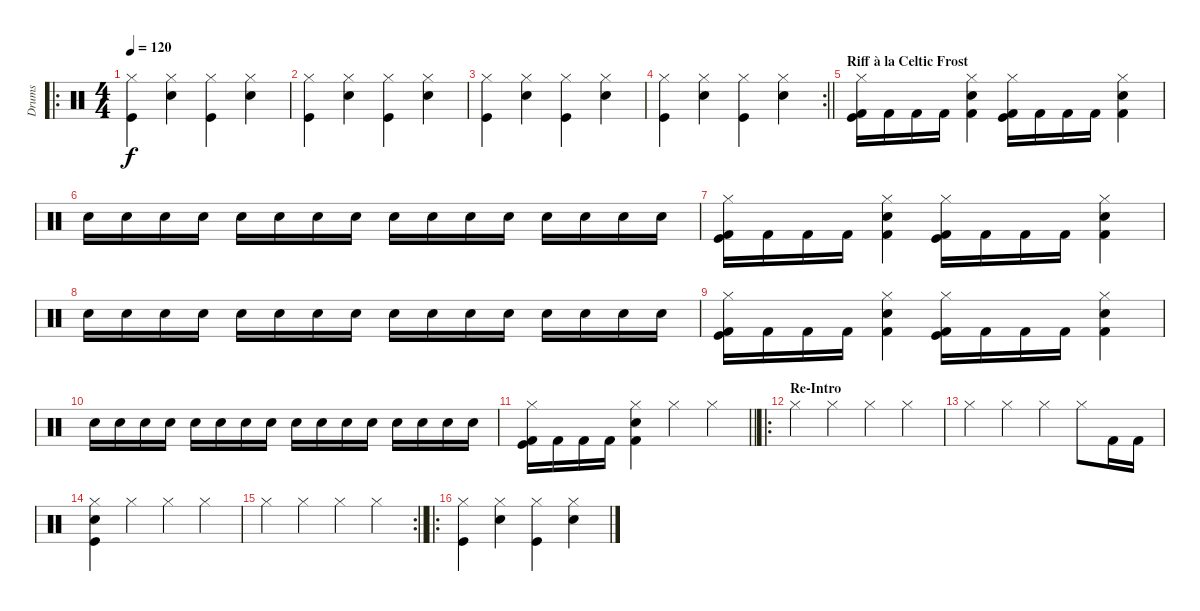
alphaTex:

\track ("Drums" "Drums") {instrument percussion}
\staff {score}
\articulation defaults
\ro
\ts (4 4)
\tempo 120
\clef neutral
\ks c
("Hi-Hat (closed)" "Kick (hit)").4{dy f} ("Hi-Hat (closed)" "Snare (hit) 2").4 ("Hi-Hat (closed)" "Kick (hit)").4 ("Hi-Hat (closed)" "Snare (hit) 2").4 |
("Hi-Hat (closed)" "Kick (hit)").4 ("Hi-Hat (closed)" "Snare (hit) 2").4 ("Hi-Hat (closed)" "Kick (hit)").4 ("Hi-Hat (closed)" "Snare (hit) 2").4 |
("Hi-Hat (closed)" "Kick (hit)").4 ("Hi-Hat (closed)" "Snare (hit) 2").4 ("Hi-Hat (closed)" "Kick (hit)").4 ("Hi-Hat (closed)" "Snare (hit) 2").4 |
\rc 2
\barLineRight lightlight
("Hi-Hat (closed)" "Kick (hit)").4 ("Hi-Hat (closed)" "Snare (hit) 2").4 ("Hi-Hat (closed)" "Kick (hit)").4 ("Hi-Hat (closed)" "Snare (hit) 2").4 |
\section ("" "Riff à la Celtic Frost")
("Kick (hit) 2" "Hi-Hat (closed)" "Kick (hit)").16 "Kick (hit) 2".16 "Kick (hit) 2".16 "Kick (hit) 2".16 ("Kick (hit) 2" "Hi-Hat (closed)" "Snare (hit) 2").4 ("Kick (hit) 2" "Hi-Hat (closed)" "Kick (hit)").16 "Kick (hit) 2".16 "Kick (hit) 2".16 "Kick (hit) 2".16 ("Kick (hit) 2" "Hi-Hat (closed)" "Snare (hit) 2").4 |
"Snare (hit) 2".16 "Snare (hit) 2".16 "Snare (hit) 2".16 "Snare (hit) 2".16 "Snare (hit) 2".16 "Snare (hit) 2".16 "Snare (hit) 2".16 "Snare (hit) 2".16 "Snare (hit) 2".16 "Snare (hit) 2".16 "Snare (hit) 2".16 "Snare (hit) 2".16 "Snare (hit) 2".16 "Snare (hit) 2".16 "Snare (hit) 2".16 "Snare (hit) 2".16 |
("Kick (hit) 2" "Hi-Hat (closed)" "Kick (hit)").16 "Kick (hit) 2".16 "Kick (hit) 2".16 "Kick (hit) 2".16 ("Kick (hit) 2" "Hi-Hat (closed)" "Snare (hit) 2").4 ("Kick (hit) 2" "Hi-Hat (closed)" "Kick (hit)").16 "Kick (hit) 2".16 "Kick (hit) 2".16 "Kick (hit) 2".16 ("Kick (hit) 2" "Hi-Hat (closed)" "Snare (hit) 2").4 |
"Snare (hit) 2".16 "Snare (hit) 2".16 "Snare (hit) 2".16 "Snare (hit) 2".16 "Snare (hit) 2".16 "Snare (hit) 2".16 "Snare (hit) 2".16 "Snare (hit) 2".16 "Snare (hit) 2".16 "Snare (hit) 2".16 "Snare (hit) 2".16 "Snare (hit) 2".16 "Snare (hit) 2".16 "Snare (hit) 2".16 "Snare (hit) 2".16 "Snare (hit) 2".16 |
("Kick (hit) 2" "Hi-Hat (closed)" "Kick (hit)").16 "Kick (hit) 2".16 "Kick (hit) 2".16 "Kick (hit) 2".16 ("Kick (hit) 2" "Hi-Hat (closed)" "Snare (hit) 2").4 ("Kick (hit) 2" "Hi-Hat (closed)" "Kick (hit)").16 "Kick (hit) 2".16 "Kick (hit) 2".16 "Kick (hit) 2".16 ("Kick (hit) 2" "Hi-Hat (closed)" "Snare (hit) 2").4 |
"Snare (hit) 2".16 "Snare (hit) 2".16 "Snare (hit) 2".16 "Snare (hit) 2".16 "Snare (hit) 2".16 "Snare (hit) 2".16 "Snare (hit) 2".16 "Snare (hit) 2".16 "Snare (hit) 2".16 "Snare (hit) 2".16 "Snare (hit) 2".16 "Snare (hit) 2".16 "Snare (hit) 2".16 "Snare (hit) 2".16 "Snare (hit) 2".16 "Snare (hit) 2".16 |
\barLineRight lightlight
("Kick (hit) 2" "Hi-Hat (closed)" "Kick (hit)").16 "Kick (hit) 2".16 "Kick (hit) 2".16 "Kick (hit) 2".16 ("Kick (hit) 2" "Hi-Hat (closed)" "Snare (hit) 2").4 "Hi-Hat (closed)".4 "Hi-Hat (closed)".4 |
\ro
\section ("" "Re-Intro")
"Hi-Hat (closed)".4 "Hi-Hat (closed)".4 "Hi-Hat (closed)".4 "Hi-Hat (closed)".4 |
"Hi-Hat (closed)".4 "Hi-Hat (closed)".4 "Hi-Hat (closed)".4 "Hi-Hat (closed)".8 "Kick (hit) 2".16 "Kick (hit) 2".16 |
("Hi-Hat (closed)" "Snare (hit) 2" "Kick (hit)").4 "Hi-Hat (closed)".4 "Hi-Hat (closed)".4 "Hi-Hat (closed)".4 |
\rc 2
\barLineRight lightlight "Hi-Hat (closed)".4 "Hi-Hat (closed)".4 "Hi-Hat (closed)".4 "Hi-Hat (closed)".4
|
\ro
("Hi-Hat (closed)" "Kick (hit)").4 ("Hi-Hat (closed)" "Snare (hit) 2").4 ("Hi-Hat (closed)" "Kick (hit)").4 ("Hi-Hat (closed)" "Snare (hit) 2").4
